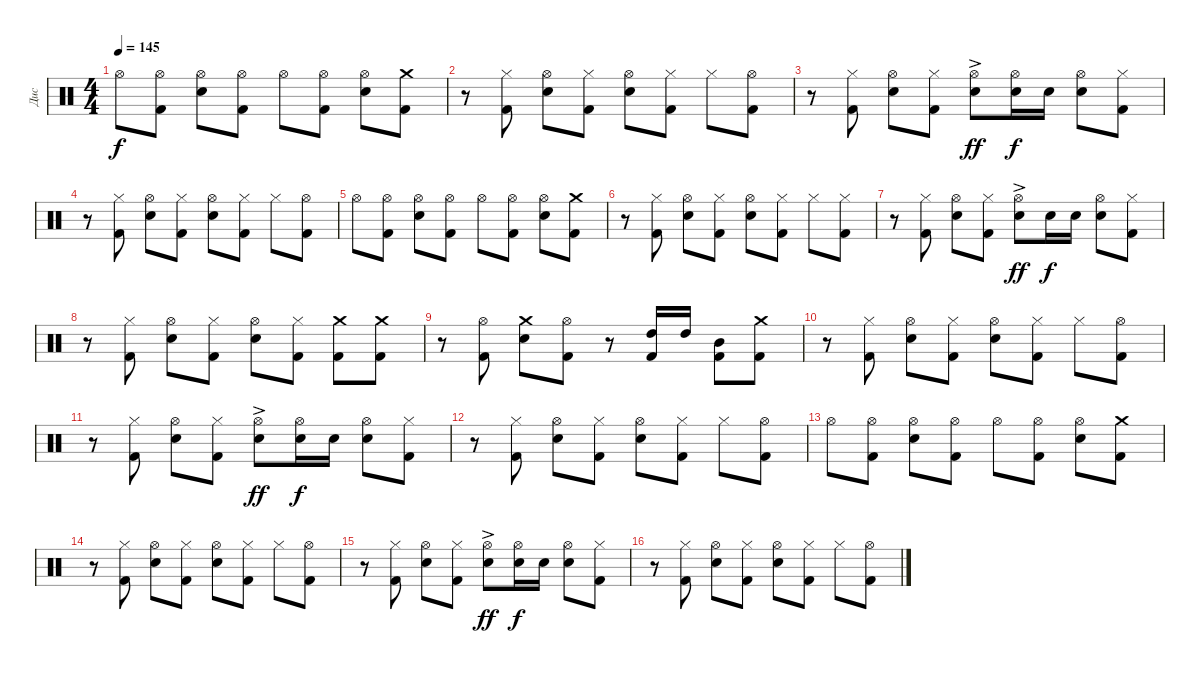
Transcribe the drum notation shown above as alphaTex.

\track ("Дис" "Дис") {instrument percussion}
\staff {score}
\articulation defaults
\ts (4 4)
\tempo 145
\clef neutral
\ks c "Hi-Hat (open)".8{dy f}
("Hi-Hat (open)" "Kick (hit) 2").8 ("Hi-Hat (open)" "Electric Snare (hit)").8 ("Hi-Hat (open)" "Kick (hit) 2").8 "Hi-Hat (open)".8 ("Hi-Hat (open)" "Kick (hit) 2").8 ("Hi-Hat (open)" "Electric Snare (hit)").8 ("Crash medium (hit)" "Kick (hit) 2").8 |
r.8 ("Hi-Hat (closed)" "Kick (hit) 2").8 ("Hi-Hat (open)" "Electric Snare (hit)").8 ("Hi-Hat (closed)" "Kick (hit) 2").8 ("Hi-Hat (open)" "Electric Snare (hit)").8 ("Hi-Hat (closed)" "Kick (hit) 2").8 "Hi-Hat (closed)".8 ("Hi-Hat (open)" "Kick (hit) 2").8 |
r.8 ("Hi-Hat (closed)" "Kick (hit) 2").8 ("Hi-Hat (open)" "Electric Snare (hit)").8 ("Hi-Hat (closed)" "Kick (hit) 2").8 ("Hi-Hat (open)" "Electric Snare (hit)"{ac}).8{dy ff} ("Hi-Hat (open)" "Electric Snare (hit)").16{dy f} "Electric Snare (hit)".16 ("Hi-Hat (open)" "Electric Snare (hit)").8 ("Hi-Hat (closed)" "Kick (hit) 2").8 |
r.8 ("Hi-Hat (closed)" "Kick (hit) 2").8 ("Hi-Hat (open)" "Electric Snare (hit)").8 ("Hi-Hat (closed)" "Kick (hit) 2").8 ("Hi-Hat (open)" "Electric Snare (hit)").8 ("Hi-Hat (closed)" "Kick (hit) 2").8 "Hi-Hat (closed)".8 ("Hi-Hat (open)" "Kick (hit) 2").8 |
"Hi-Hat (open)".8 ("Hi-Hat (open)" "Kick (hit) 2").8 ("Hi-Hat (open)" "Electric Snare (hit)").8 ("Hi-Hat (open)" "Kick (hit) 2").8 "Hi-Hat (open)".8 ("Hi-Hat (open)" "Kick (hit) 2").8 ("Hi-Hat (open)" "Electric Snare (hit)").8 ("Crash medium (hit)" "Kick (hit) 2").8 |
r.8 ("Hi-Hat (closed)" "Kick (hit) 2").8 ("Hi-Hat (open)" "Electric Snare (hit)").8 ("Hi-Hat (closed)" "Kick (hit) 2").8 ("Hi-Hat (open)" "Electric Snare (hit)").8 ("Hi-Hat (closed)" "Kick (hit) 2").8 "Hi-Hat (closed)".8 ("Hi-Hat (closed)" "Kick (hit) 2").8 |
r.8 ("Hi-Hat (closed)" "Kick (hit) 2").8 ("Hi-Hat (open)" "Electric Snare (hit)").8 ("Hi-Hat (closed)" "Kick (hit) 2").8 ("Hi-Hat (open)" "Electric Snare (hit)"{ac}).8{dy ff} "Electric Snare (hit)".16{dy f} "Electric Snare (hit)".16 ("Hi-Hat (open)" "Electric Snare (hit)").8 ("Hi-Hat (closed)" "Kick (hit) 2").8 |
r.8 ("Hi-Hat (closed)" "Kick (hit) 2").8 ("Hi-Hat (open)" "Electric Snare (hit)").8 ("Hi-Hat (closed)" "Kick (hit) 2").8 ("Hi-Hat (open)" "Electric Snare (hit)").8 ("Hi-Hat (closed)" "Kick (hit) 2").8 ("Crash medium (hit)" "Kick (hit) 2").8 ("Crash medium (hit)" "Kick (hit) 2").8 |
r.8 ("Hi-Hat (open)" "Kick (hit) 2").8 ("Crash medium (hit)" "Electric Snare (hit)").8 ("Hi-Hat (open)" "Kick (hit) 2").8 r.8 ("High Tom (hit)" "Kick (hit) 2").16 "High Tom (hit)".16 ("Mid Tom (hit)" "Kick (hit) 2").8 ("Crash medium (hit)" "Kick (hit) 2").8 |
r.8 ("Hi-Hat (closed)" "Kick (hit) 2").8 ("Hi-Hat (open)" "Electric Snare (hit)").8 ("Hi-Hat (closed)" "Kick (hit) 2").8 ("Hi-Hat (open)" "Electric Snare (hit)").8 ("Hi-Hat (closed)" "Kick (hit) 2").8 "Hi-Hat (closed)".8 ("Hi-Hat (open)" "Kick (hit) 2").8 |
r.8 ("Hi-Hat (closed)" "Kick (hit) 2").8 ("Hi-Hat (open)" "Electric Snare (hit)").8 ("Hi-Hat (closed)" "Kick (hit) 2").8 ("Hi-Hat (open)" "Electric Snare (hit)"{ac}).8{dy ff} ("Hi-Hat (open)" "Electric Snare (hit)").16{dy f} "Electric Snare (hit)".16 ("Hi-Hat (open)" "Electric Snare (hit)").8 ("Hi-Hat (closed)" "Kick (hit) 2").8 |
r.8 ("Hi-Hat (closed)" "Kick (hit) 2").8 ("Hi-Hat (open)" "Electric Snare (hit)").8 ("Hi-Hat (closed)" "Kick (hit) 2").8 ("Hi-Hat (open)" "Electric Snare (hit)").8 ("Hi-Hat (closed)" "Kick (hit) 2").8 "Hi-Hat (closed)".8 ("Hi-Hat (open)" "Kick (hit) 2").8 |
"Hi-Hat (open)".8 ("Hi-Hat (open)" "Kick (hit) 2").8 ("Hi-Hat (open)" "Electric Snare (hit)").8 ("Hi-Hat (open)" "Kick (hit) 2").8 "Hi-Hat (open)".8 ("Hi-Hat (open)" "Kick (hit) 2").8 ("Hi-Hat (open)" "Electric Snare (hit)").8 ("Crash medium (hit)" "Kick (hit) 2").8 |
r.8 ("Hi-Hat (closed)" "Kick (hit) 2").8 ("Hi-Hat (open)" "Electric Snare (hit)").8 ("Hi-Hat (closed)" "Kick (hit) 2").8 ("Hi-Hat (open)" "Electric Snare (hit)").8 ("Hi-Hat (closed)" "Kick (hit) 2").8 "Hi-Hat (closed)".8 ("Hi-Hat (open)" "Kick (hit) 2").8 |
r.8 ("Hi-Hat (closed)" "Kick (hit) 2").8 ("Hi-Hat (open)" "Electric Snare (hit)").8 ("Hi-Hat (closed)" "Kick (hit) 2").8 ("Hi-Hat (open)" "Electric Snare (hit)"{ac}).8{dy ff} ("Hi-Hat (open)" "Electric Snare (hit)").16{dy f} "Electric Snare (hit)".16 ("Hi-Hat (open)" "Electric Snare (hit)").8 ("Hi-Hat (closed)" "Kick (hit) 2").8 |
r.8 ("Hi-Hat (closed)" "Kick (hit) 2").8 ("Hi-Hat (open)" "Electric Snare (hit)").8 ("Hi-Hat (closed)" "Kick (hit) 2").8 ("Hi-Hat (open)" "Electric Snare (hit)").8 ("Hi-Hat (closed)" "Kick (hit) 2").8 "Hi-Hat (closed)".8 ("Hi-Hat (open)" "Kick (hit) 2").8
